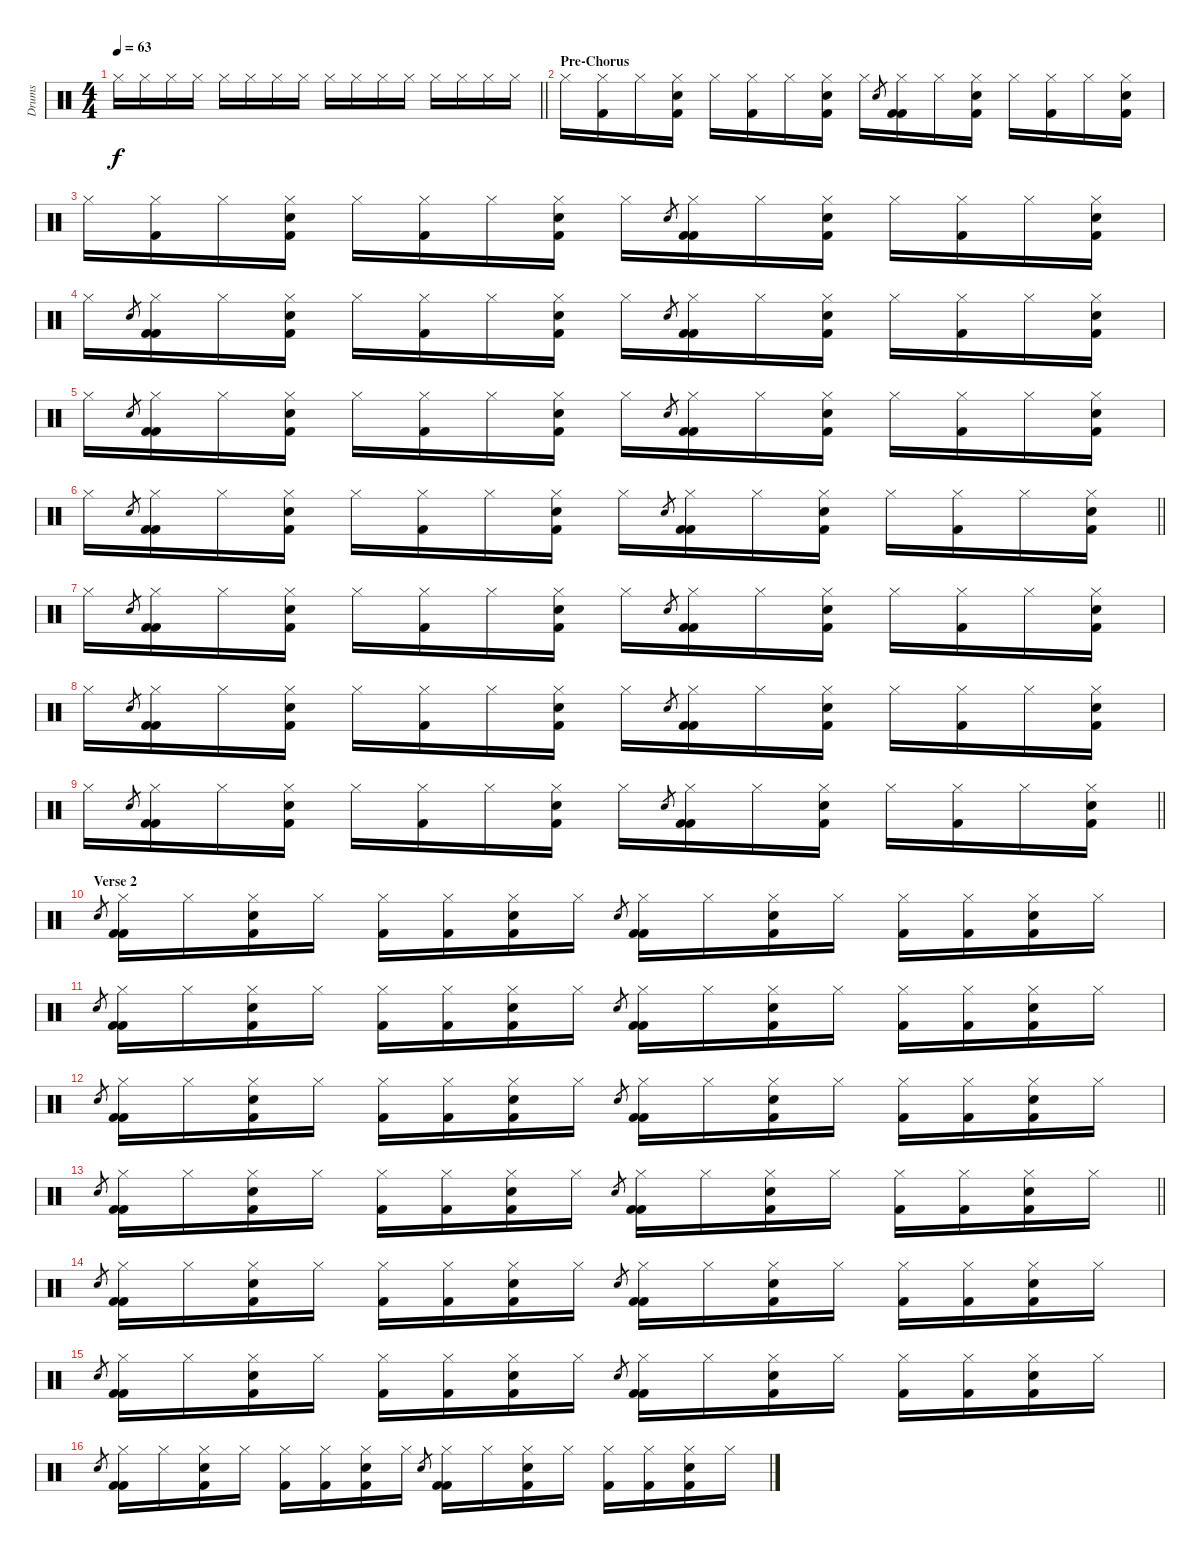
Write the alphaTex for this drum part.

\track ("Drums" "Drums") {instrument percussion}
\staff {score}
\articulation defaults
\ts (4 4)
\tempo 63
\clef neutral
\barLineRight lightlight
\ks c "Hi-Hat (closed)".16{dy f} "Hi-Hat (closed)".16 "Hi-Hat (closed)".16 "Hi-Hat (closed)".16 "Hi-Hat (closed)".16 "Hi-Hat (closed)".16 "Hi-Hat (closed)".16 "Hi-Hat (closed)".16 "Hi-Hat (closed)".16 "Hi-Hat (closed)".16 "Hi-Hat (closed)".16 "Hi-Hat (closed)".16 "Hi-Hat (closed)".16 "Hi-Hat (closed)".16 "Hi-Hat (closed)".16 "Hi-Hat (closed)".16
|
\section ("" "Pre-Chorus")
"Hi-Hat (closed)".16 ("Hi-Hat (closed)" "Kick (hit) 2").16 "Hi-Hat (closed)".16 ("Snare (hit) 2" "Hi-Hat (closed)" "Kick (hit) 2").16 "Hi-Hat (closed)".16 ("Hi-Hat (closed)" "Kick (hit) 2").16 "Hi-Hat (closed)".16 ("Snare (hit) 2" "Hi-Hat (closed)" "Kick (hit) 2").16 "Hi-Hat (closed)".16 "Snare (hit) 2".8{gr} ("Kick (hit) 2" "Hi-Hat (closed)" "Kick (hit) 2").16 "Hi-Hat (closed)".16 ("Snare (hit) 2" "Hi-Hat (closed)" "Kick (hit) 2").16 "Hi-Hat (closed)".16 ("Hi-Hat (closed)" "Kick (hit) 2").16 "Hi-Hat (closed)".16 ("Snare (hit) 2" "Hi-Hat (closed)" "Kick (hit) 2").16 |
"Hi-Hat (closed)".16 ("Hi-Hat (closed)" "Kick (hit) 2").16 "Hi-Hat (closed)".16 ("Snare (hit) 2" "Hi-Hat (closed)" "Kick (hit) 2").16 "Hi-Hat (closed)".16 ("Hi-Hat (closed)" "Kick (hit) 2").16 "Hi-Hat (closed)".16 ("Snare (hit) 2" "Hi-Hat (closed)" "Kick (hit) 2").16 "Hi-Hat (closed)".16 "Snare (hit) 2".8{gr} ("Kick (hit) 2" "Hi-Hat (closed)" "Kick (hit) 2").16 "Hi-Hat (closed)".16 ("Snare (hit) 2" "Hi-Hat (closed)" "Kick (hit) 2").16 "Hi-Hat (closed)".16 ("Hi-Hat (closed)" "Kick (hit) 2").16 "Hi-Hat (closed)".16 ("Snare (hit) 2" "Hi-Hat (closed)" "Kick (hit) 2").16 |
"Hi-Hat (closed)".16 "Snare (hit) 2".8{gr} ("Kick (hit) 2" "Hi-Hat (closed)" "Kick (hit) 2").16 "Hi-Hat (closed)".16 ("Snare (hit) 2" "Hi-Hat (closed)" "Kick (hit) 2").16 "Hi-Hat (closed)".16 ("Hi-Hat (closed)" "Kick (hit) 2").16 "Hi-Hat (closed)".16 ("Snare (hit) 2" "Hi-Hat (closed)" "Kick (hit) 2").16 "Hi-Hat (closed)".16 "Snare (hit) 2".8{gr} ("Kick (hit) 2" "Hi-Hat (closed)" "Kick (hit) 2").16 "Hi-Hat (closed)".16 ("Snare (hit) 2" "Hi-Hat (closed)" "Kick (hit) 2").16 "Hi-Hat (closed)".16 ("Hi-Hat (closed)" "Kick (hit) 2").16 "Hi-Hat (closed)".16 ("Snare (hit) 2" "Hi-Hat (closed)" "Kick (hit) 2").16 |
"Hi-Hat (closed)".16 "Snare (hit) 2".8{gr} ("Kick (hit) 2" "Hi-Hat (closed)" "Kick (hit) 2").16 "Hi-Hat (closed)".16 ("Snare (hit) 2" "Hi-Hat (closed)" "Kick (hit) 2").16 "Hi-Hat (closed)".16 ("Hi-Hat (closed)" "Kick (hit) 2").16 "Hi-Hat (closed)".16 ("Snare (hit) 2" "Hi-Hat (closed)" "Kick (hit) 2").16 "Hi-Hat (closed)".16 "Snare (hit) 2".8{gr} ("Kick (hit) 2" "Hi-Hat (closed)" "Kick (hit) 2").16 "Hi-Hat (closed)".16 ("Snare (hit) 2" "Hi-Hat (closed)" "Kick (hit) 2").16 "Hi-Hat (closed)".16 ("Hi-Hat (closed)" "Kick (hit) 2").16 "Hi-Hat (closed)".16 ("Snare (hit) 2" "Hi-Hat (closed)" "Kick (hit) 2").16 |
\barLineRight lightlight "Hi-Hat (closed)".16 "Snare (hit) 2".8{gr}
("Kick (hit) 2" "Hi-Hat (closed)" "Kick (hit) 2").16 "Hi-Hat (closed)".16 ("Snare (hit) 2" "Hi-Hat (closed)" "Kick (hit) 2").16 "Hi-Hat (closed)".16 ("Hi-Hat (closed)" "Kick (hit) 2").16 "Hi-Hat (closed)".16 ("Snare (hit) 2" "Hi-Hat (closed)" "Kick (hit) 2").16 "Hi-Hat (closed)".16 "Snare (hit) 2".8{gr} ("Kick (hit) 2" "Hi-Hat (closed)" "Kick (hit) 2").16 "Hi-Hat (closed)".16 ("Snare (hit) 2" "Hi-Hat (closed)" "Kick (hit) 2").16 "Hi-Hat (closed)".16 ("Hi-Hat (closed)" "Kick (hit) 2").16 "Hi-Hat (closed)".16 ("Snare (hit) 2" "Hi-Hat (closed)" "Kick (hit) 2").16 |
"Hi-Hat (closed)".16 "Snare (hit) 2".8{gr} ("Kick (hit) 2" "Hi-Hat (closed)" "Kick (hit) 2").16 "Hi-Hat (closed)".16 ("Snare (hit) 2" "Hi-Hat (closed)" "Kick (hit) 2").16 "Hi-Hat (closed)".16 ("Hi-Hat (closed)" "Kick (hit) 2").16 "Hi-Hat (closed)".16 ("Snare (hit) 2" "Hi-Hat (closed)" "Kick (hit) 2").16 "Hi-Hat (closed)".16 "Snare (hit) 2".8{gr} ("Kick (hit) 2" "Hi-Hat (closed)" "Kick (hit) 2").16 "Hi-Hat (closed)".16 ("Snare (hit) 2" "Hi-Hat (closed)" "Kick (hit) 2").16 "Hi-Hat (closed)".16 ("Hi-Hat (closed)" "Kick (hit) 2").16 "Hi-Hat (closed)".16 ("Snare (hit) 2" "Hi-Hat (closed)" "Kick (hit) 2").16 |
"Hi-Hat (closed)".16 "Snare (hit) 2".8{gr} ("Kick (hit) 2" "Hi-Hat (closed)" "Kick (hit) 2").16 "Hi-Hat (closed)".16 ("Snare (hit) 2" "Hi-Hat (closed)" "Kick (hit) 2").16 "Hi-Hat (closed)".16 ("Hi-Hat (closed)" "Kick (hit) 2").16 "Hi-Hat (closed)".16 ("Snare (hit) 2" "Hi-Hat (closed)" "Kick (hit) 2").16 "Hi-Hat (closed)".16 "Snare (hit) 2".8{gr} ("Kick (hit) 2" "Hi-Hat (closed)" "Kick (hit) 2").16 "Hi-Hat (closed)".16 ("Snare (hit) 2" "Hi-Hat (closed)" "Kick (hit) 2").16 "Hi-Hat (closed)".16 ("Hi-Hat (closed)" "Kick (hit) 2").16 "Hi-Hat (closed)".16 ("Snare (hit) 2" "Hi-Hat (closed)" "Kick (hit) 2").16 |
\barLineRight lightlight "Hi-Hat (closed)".16 "Snare (hit) 2".8{gr}
("Kick (hit) 2" "Hi-Hat (closed)" "Kick (hit) 2").16 "Hi-Hat (closed)".16 ("Snare (hit) 2" "Hi-Hat (closed)" "Kick (hit) 2").16 "Hi-Hat (closed)".16 ("Hi-Hat (closed)" "Kick (hit) 2").16 "Hi-Hat (closed)".16 ("Snare (hit) 2" "Hi-Hat (closed)" "Kick (hit) 2").16 "Hi-Hat (closed)".16 "Snare (hit) 2".8{gr} ("Kick (hit) 2" "Hi-Hat (closed)" "Kick (hit) 2").16 "Hi-Hat (closed)".16 ("Snare (hit) 2" "Hi-Hat (closed)" "Kick (hit) 2").16 "Hi-Hat (closed)".16 ("Hi-Hat (closed)" "Kick (hit) 2").16 "Hi-Hat (closed)".16 ("Snare (hit) 2" "Hi-Hat (closed)" "Kick (hit) 2").16 |
\section ("" "Verse 2")
"Snare (hit) 2".8{gr} ("Kick (hit) 2" "Hi-Hat (closed)" "Kick (hit) 2").16 "Hi-Hat (closed)".16 ("Snare (hit) 2" "Hi-Hat (closed)" "Kick (hit) 2").16 "Hi-Hat (closed)".16 ("Hi-Hat (closed)" "Kick (hit) 2").16 ("Hi-Hat (closed)" "Kick (hit) 2").16 ("Snare (hit) 2" "Hi-Hat (closed)" "Kick (hit) 2").16 "Hi-Hat (closed)".16 "Snare (hit) 2".8{gr} ("Kick (hit) 2" "Hi-Hat (closed)" "Kick (hit) 2").16 "Hi-Hat (closed)".16 ("Snare (hit) 2" "Hi-Hat (closed)" "Kick (hit) 2").16 "Hi-Hat (closed)".16 ("Hi-Hat (closed)" "Kick (hit) 2").16 ("Hi-Hat (closed)" "Kick (hit) 2").16 ("Snare (hit) 2" "Hi-Hat (closed)" "Kick (hit) 2").16 "Hi-Hat (closed)".16 |
"Snare (hit) 2".8{gr} ("Kick (hit) 2" "Hi-Hat (closed)" "Kick (hit) 2").16 "Hi-Hat (closed)".16 ("Snare (hit) 2" "Hi-Hat (closed)" "Kick (hit) 2").16 "Hi-Hat (closed)".16 ("Hi-Hat (closed)" "Kick (hit) 2").16 ("Hi-Hat (closed)" "Kick (hit) 2").16 ("Snare (hit) 2" "Hi-Hat (closed)" "Kick (hit) 2").16 "Hi-Hat (closed)".16 "Snare (hit) 2".8{gr} ("Kick (hit) 2" "Hi-Hat (closed)" "Kick (hit) 2").16 "Hi-Hat (closed)".16 ("Snare (hit) 2" "Hi-Hat (closed)" "Kick (hit) 2").16 "Hi-Hat (closed)".16 ("Hi-Hat (closed)" "Kick (hit) 2").16 ("Hi-Hat (closed)" "Kick (hit) 2").16 ("Snare (hit) 2" "Hi-Hat (closed)" "Kick (hit) 2").16 "Hi-Hat (closed)".16 |
"Snare (hit) 2".8{gr} ("Kick (hit) 2" "Hi-Hat (closed)" "Kick (hit) 2").16 "Hi-Hat (closed)".16 ("Snare (hit) 2" "Hi-Hat (closed)" "Kick (hit) 2").16 "Hi-Hat (closed)".16 ("Hi-Hat (closed)" "Kick (hit) 2").16 ("Hi-Hat (closed)" "Kick (hit) 2").16 ("Snare (hit) 2" "Hi-Hat (closed)" "Kick (hit) 2").16 "Hi-Hat (closed)".16 "Snare (hit) 2".8{gr} ("Kick (hit) 2" "Hi-Hat (closed)" "Kick (hit) 2").16 "Hi-Hat (closed)".16 ("Snare (hit) 2" "Hi-Hat (closed)" "Kick (hit) 2").16 "Hi-Hat (closed)".16 ("Hi-Hat (closed)" "Kick (hit) 2").16 ("Hi-Hat (closed)" "Kick (hit) 2").16 ("Snare (hit) 2" "Hi-Hat (closed)" "Kick (hit) 2").16 "Hi-Hat (closed)".16 |
\barLineRight lightlight "Snare (hit) 2".8{gr}
("Kick (hit) 2" "Hi-Hat (closed)" "Kick (hit) 2").16 "Hi-Hat (closed)".16 ("Snare (hit) 2" "Hi-Hat (closed)" "Kick (hit) 2").16 "Hi-Hat (closed)".16 ("Hi-Hat (closed)" "Kick (hit) 2").16 ("Hi-Hat (closed)" "Kick (hit) 2").16 ("Snare (hit) 2" "Hi-Hat (closed)" "Kick (hit) 2").16 "Hi-Hat (closed)".16 "Snare (hit) 2".8{gr} ("Kick (hit) 2" "Hi-Hat (closed)" "Kick (hit) 2").16 "Hi-Hat (closed)".16 ("Snare (hit) 2" "Hi-Hat (closed)" "Kick (hit) 2").16 "Hi-Hat (closed)".16 ("Hi-Hat (closed)" "Kick (hit) 2").16 ("Hi-Hat (closed)" "Kick (hit) 2").16 ("Snare (hit) 2" "Hi-Hat (closed)" "Kick (hit) 2").16 "Hi-Hat (closed)".16 |
"Snare (hit) 2".8{gr} ("Kick (hit) 2" "Hi-Hat (closed)" "Kick (hit) 2").16 "Hi-Hat (closed)".16 ("Snare (hit) 2" "Hi-Hat (closed)" "Kick (hit) 2").16 "Hi-Hat (closed)".16 ("Hi-Hat (closed)" "Kick (hit) 2").16 ("Hi-Hat (closed)" "Kick (hit) 2").16 ("Snare (hit) 2" "Hi-Hat (closed)" "Kick (hit) 2").16 "Hi-Hat (closed)".16 "Snare (hit) 2".8{gr} ("Kick (hit) 2" "Hi-Hat (closed)" "Kick (hit) 2").16 "Hi-Hat (closed)".16 ("Snare (hit) 2" "Hi-Hat (closed)" "Kick (hit) 2").16 "Hi-Hat (closed)".16 ("Hi-Hat (closed)" "Kick (hit) 2").16 ("Hi-Hat (closed)" "Kick (hit) 2").16 ("Snare (hit) 2" "Hi-Hat (closed)" "Kick (hit) 2").16 "Hi-Hat (closed)".16 |
"Snare (hit) 2".8{gr} ("Kick (hit) 2" "Hi-Hat (closed)" "Kick (hit) 2").16 "Hi-Hat (closed)".16 ("Snare (hit) 2" "Hi-Hat (closed)" "Kick (hit) 2").16 "Hi-Hat (closed)".16 ("Hi-Hat (closed)" "Kick (hit) 2").16 ("Hi-Hat (closed)" "Kick (hit) 2").16 ("Snare (hit) 2" "Hi-Hat (closed)" "Kick (hit) 2").16 "Hi-Hat (closed)".16 "Snare (hit) 2".8{gr} ("Kick (hit) 2" "Hi-Hat (closed)" "Kick (hit) 2").16 "Hi-Hat (closed)".16 ("Snare (hit) 2" "Hi-Hat (closed)" "Kick (hit) 2").16 "Hi-Hat (closed)".16 ("Hi-Hat (closed)" "Kick (hit) 2").16 ("Hi-Hat (closed)" "Kick (hit) 2").16 ("Snare (hit) 2" "Hi-Hat (closed)" "Kick (hit) 2").16 "Hi-Hat (closed)".16 |
"Snare (hit) 2".8{gr} ("Kick (hit) 2" "Hi-Hat (closed)" "Kick (hit) 2").16 "Hi-Hat (closed)".16 ("Snare (hit) 2" "Hi-Hat (closed)" "Kick (hit) 2").16 "Hi-Hat (closed)".16 ("Hi-Hat (closed)" "Kick (hit) 2").16 ("Hi-Hat (closed)" "Kick (hit) 2").16 ("Snare (hit) 2" "Hi-Hat (closed)" "Kick (hit) 2").16 "Hi-Hat (closed)".16 "Snare (hit) 2".8{gr} ("Kick (hit) 2" "Hi-Hat (closed)" "Kick (hit) 2").16 "Hi-Hat (closed)".16 ("Snare (hit) 2" "Hi-Hat (closed)" "Kick (hit) 2").16 "Hi-Hat (closed)".16 ("Hi-Hat (closed)" "Kick (hit) 2").16 ("Hi-Hat (closed)" "Kick (hit) 2").16 ("Snare (hit) 2" "Hi-Hat (closed)" "Kick (hit) 2").16 "Hi-Hat (closed)".16
